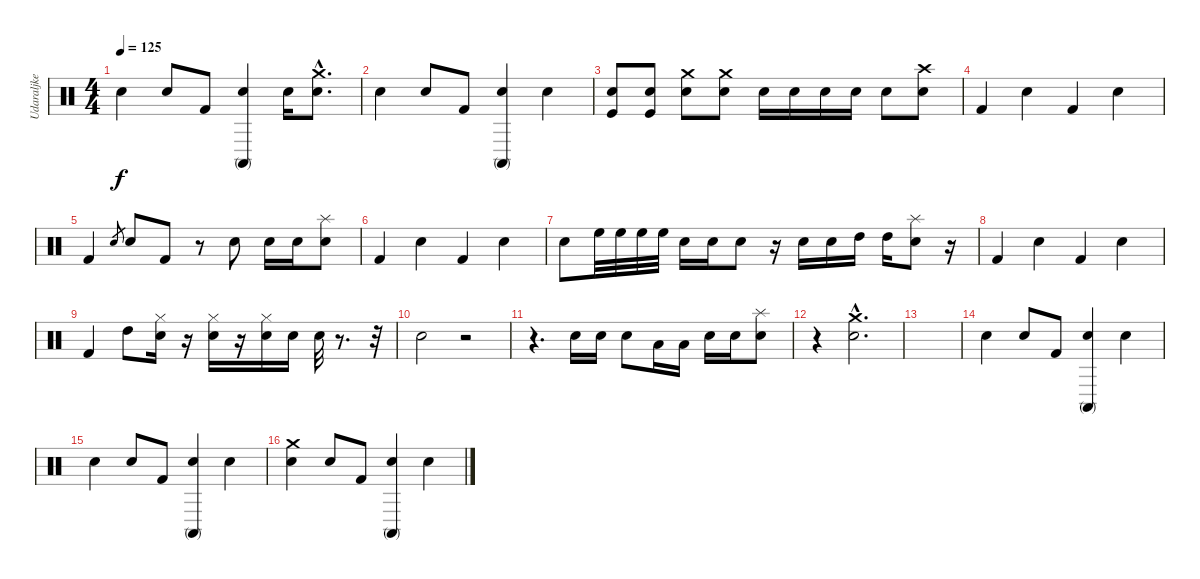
\track ("Udaraljke" "Udaraljke") {instrument percussion}
\staff {score}
\articulation defaults
\ts (4 4)
\tempo 125
\clef neutral
\ks c "Electric Snare (hit)".4{dy f} "Electric Snare (hit)".8 "Kick (hit) 2".8
("Electric Snare (hit)" "Conga high (mute)").4 "Electric Snare (hit)".16 ("Electric Snare (hit)"{hac} "Crash medium (hit)"{hac}).8{d} |
"Electric Snare (hit)".4 "Electric Snare (hit)".8 "Kick (hit) 2".8 ("Electric Snare (hit)" "Conga high (mute)").4 "Electric Snare (hit)".4 |
("Snare (hit) 2" "Kick (hit)").8 ("Snare (hit) 2" "Kick (hit)").8 ("Snare (hit) 2" "Crash medium (hit)").8 ("Snare (hit) 2" "Crash medium (hit)").8 "Electric Snare (hit)".16 "Electric Snare (hit)".16 "Electric Snare (hit)".16 "Electric Snare (hit)".16 "Electric Snare (hit)".8 ("Electric Snare (hit)" "Crash high (hit)").8 |
"Kick (hit) 2".4 "Electric Snare (hit)".4 "Kick (hit) 2".4 "Electric Snare (hit)".4 |
"Kick (hit) 2".4 "Electric Snare (hit)".8{gr} "Electric Snare (hit)".8 "Kick (hit) 2".8 r.8 "Electric Snare (hit)".8 "Snare (hit) 2".16 "Electric Snare (hit)".16 ("Electric Snare (hit)" "Splash (hit)").8 |
"Kick (hit) 2".4 "Electric Snare (hit)".4 "Kick (hit) 2".4 "Electric Snare (hit)".4 |
"Electric Snare (hit)".8 "High Floor Tom (hit)".32 "High Floor Tom (hit)".32 "High Floor Tom (hit)".32 "High Floor Tom (hit)".32 "Snare (hit) 2".16 "Snare (hit) 2".16 "Electric Snare (hit)".8 r.16 "Snare (hit) 2".16 "Snare (hit) 2".16 "High Tom (hit)".16 "High Tom (hit)".16 ("Electric Snare (hit)" "Splash (hit)").8 r.16 |
"Kick (hit) 2".4 "Electric Snare (hit)".4 "Kick (hit) 2".4 "Electric Snare (hit)".4 |
"Kick (hit) 2".4 "High Tom (hit)".8 ("Snare (hit) 2" "Hi-Hat (closed)").16 r.16 ("Snare (hit) 2" "Hi-Hat (closed)").16 r.16 ("Snare (hit) 2" "Hi-Hat (closed)").16 "Snare (hit) 2".16 "Snare (hit) 2".32 r.8{d} r.32 |
"Electric Snare (hit)".2 r.2 |
r.4{d} "Electric Snare (hit)".16 "Electric Snare (hit)".16 "Electric Snare (hit)".8 "Low Tom (hit)".16 "Low Tom (hit)".16 "Snare (hit) 2".16 "Snare (hit) 2".16 ("Electric Snare (hit)" "Splash (hit)").8 |
r.4 ("Electric Snare (hit)"{hac} "Crash medium (hit)"{hac}).2{d} |
|
"Electric Snare (hit)".4 "Electric Snare (hit)".8 "Kick (hit) 2".8 ("Electric Snare (hit)" "Conga high (mute)").4 "Electric Snare (hit)".4 |
"Electric Snare (hit)".4 "Electric Snare (hit)".8 "Kick (hit) 2".8 ("Electric Snare (hit)" "Conga high (mute)").4 "Electric Snare (hit)".4 |
("Electric Snare (hit)" "Crash medium (hit)").4 "Electric Snare (hit)".8 "Kick (hit) 2".8 ("Electric Snare (hit)" "Conga high (mute)").4 "Electric Snare (hit)".4
